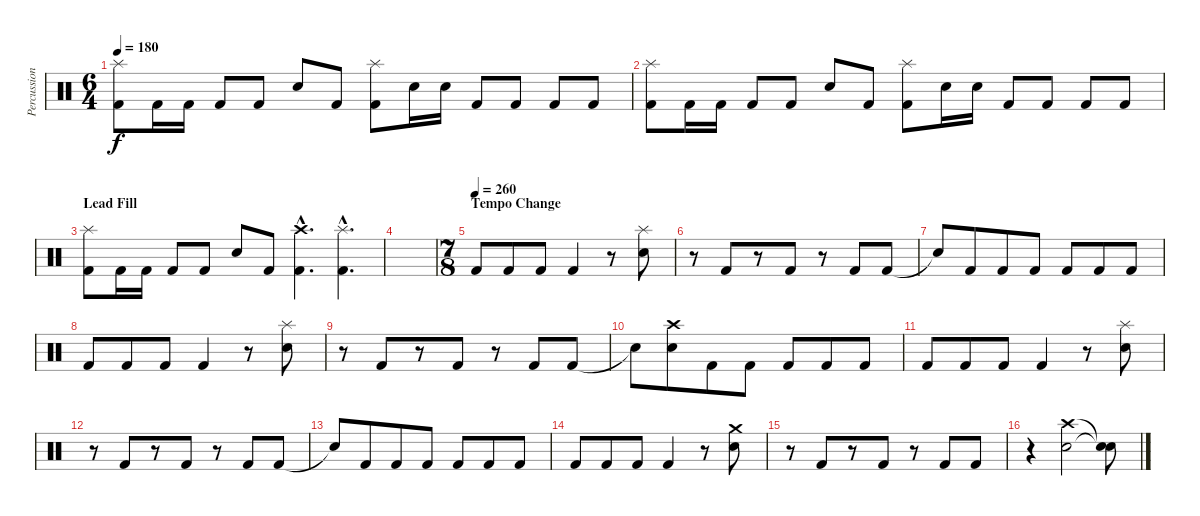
\track ("Percussion" "Percussion") {instrument percussion}
\staff {score}
\articulation defaults
\ts (6 4)
\tempo 180
\clef neutral
\ks c
("Splash (hit)" "Kick (hit) 2").8{dy f} "Kick (hit) 2".16 "Kick (hit) 2".16 "Kick (hit) 2".8 "Kick (hit) 2".8 "Snare (hit) 2".8 "Kick (hit) 2".8 ("Splash (hit)" "Kick (hit) 2").8 "Snare (hit) 2".16 "Snare (hit) 2".16 "Kick (hit) 2".8 "Kick (hit) 2".8 "Kick (hit) 2".8 "Kick (hit) 2".8 |
("Splash (hit)" "Kick (hit) 2").8 "Kick (hit) 2".16 "Kick (hit) 2".16 "Kick (hit) 2".8 "Kick (hit) 2".8 "Snare (hit) 2".8 "Kick (hit) 2".8 ("Splash (hit)" "Kick (hit) 2").8 "Snare (hit) 2".16 "Snare (hit) 2".16 "Kick (hit) 2".8 "Kick (hit) 2".8 "Kick (hit) 2".8 "Kick (hit) 2".8 |
\section ("" "Lead Fill")
("Splash (hit)" "Kick (hit) 2").8 "Kick (hit) 2".16 "Kick (hit) 2".16 "Kick (hit) 2".8 "Kick (hit) 2".8 "Snare (hit) 2".8 "Kick (hit) 2".8 ("Crash high (hit)"{hac} "Kick (hit) 2"{hac}).4{d} ("Splash (hit)"{hac} "Kick (hit) 2"{hac}).4{d} |
|
\ts (7 8)
\section ("" "Tempo Change")
\tempo (260)
"Kick (hit) 2".8 "Kick (hit) 2".8 "Kick (hit) 2".8 "Kick (hit) 2".4 r.8 ("Splash (hit)" "Snare (hit) 2").8 |
r.8 "Kick (hit) 2".8 r.8 "Kick (hit) 2".8 r.8 "Kick (hit) 2".8 "Kick (hit) 2".8 |
"Snare (hit)"{t}.8 "Kick (hit) 2".8 "Kick (hit) 2".8 "Kick (hit) 2".8 "Kick (hit) 2".8 "Kick (hit) 2".8 "Kick (hit) 2".8 |
"Kick (hit) 2".8 "Kick (hit) 2".8 "Kick (hit) 2".8 "Kick (hit) 2".4 r.8 ("Splash (hit)" "Snare (hit) 2").8 |
r.8 "Kick (hit) 2".8 r.8 "Kick (hit) 2".8 r.8 "Kick (hit) 2".8 "Kick (hit) 2".8 |
"Snare (hit)"{t}.8 ("Crash high (hit)" "Snare (hit) 2").8 "Kick (hit) 2".8 "Kick (hit) 2".8 "Kick (hit) 2".8 "Kick (hit) 2".8 "Kick (hit) 2".8 |
"Kick (hit) 2".8 "Kick (hit) 2".8 "Kick (hit) 2".8 "Kick (hit) 2".4 r.8 ("Splash (hit)" "Snare (hit) 2").8 |
r.8 "Kick (hit) 2".8 r.8 "Kick (hit) 2".8 r.8 "Kick (hit) 2".8 "Kick (hit) 2".8 |
"Snare (hit)"{t}.8 "Kick (hit) 2".8 "Kick (hit) 2".8 "Kick (hit) 2".8 "Kick (hit) 2".8 "Kick (hit) 2".8 "Kick (hit) 2".8 |
"Kick (hit) 2".8 "Kick (hit) 2".8 "Kick (hit) 2".8 "Kick (hit) 2".4 r.8 ("Crash medium (hit)" "Snare (hit) 2").8 |
r.8 "Kick (hit) 2".8 r.8 "Kick (hit) 2".8 r.8 "Kick (hit) 2".8 "Kick (hit) 2".8 |
r.4 ("Crash high (hit)" "Snare (hit) 2").2 ("Snare (hit)"{t} "Snare (hit)"{t}).8
